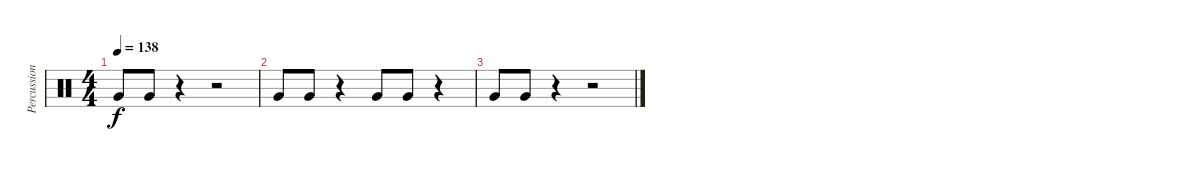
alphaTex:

\track ("Percussion" "Percussion") {instrument percussion}
\staff {score}
\articulation defaults
\ts (4 4)
\tempo 138
\clef neutral
\ks c "Very Low Tom (hit)".8{dy f} "Very Low Tom (hit)".8
r.4 r.2 |
"Very Low Tom (hit)".8 "Very Low Tom (hit)".8 r.4 "Very Low Tom (hit)".8 "Very Low Tom (hit)".8 r.4 |
"Very Low Tom (hit)".8 "Very Low Tom (hit)".8 r.4 r.2
